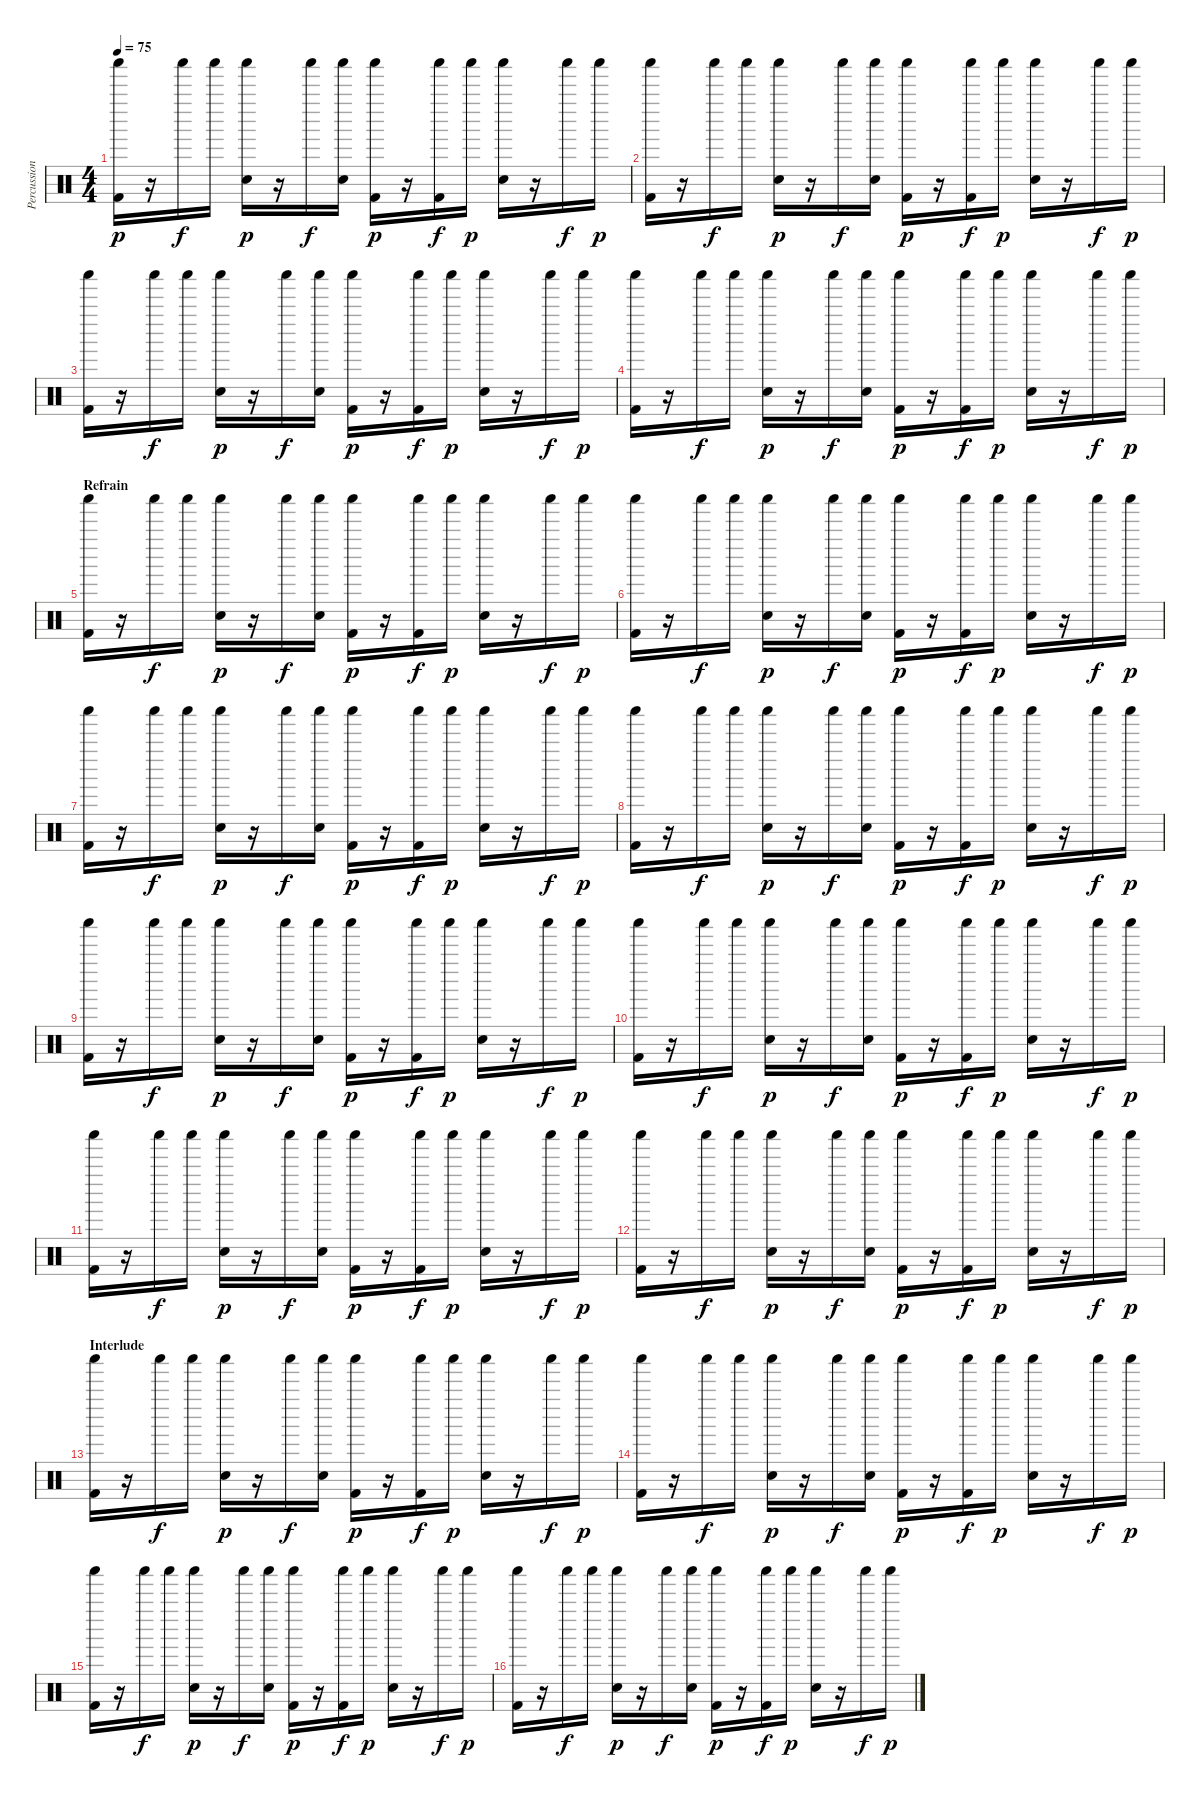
\track ("Percussions - Dom Howard" "Percussion") {instrument percussion}
\staff {score}
\articulation defaults
\ts (4 4)
\tempo 75
\clef neutral
\ks c
("Kick (hit) 2" "Shaker (hit)").16{dy p} r.16 "Shaker (hit)".16{dy f} "Shaker (hit)".16 ("Electric Snare (hit)" "Shaker (hit)").16{dy p} r.16 "Shaker (hit)".16{dy f} ("Electric Snare (hit)" "Shaker (hit)").16 ("Kick (hit) 2" "Shaker (hit)").16{dy p} r.16 ("Kick (hit) 2" "Shaker (hit)").16{dy f} "Shaker (hit)".16{dy p} ("Electric Snare (hit)" "Shaker (hit)").16 r.16 "Shaker (hit)".16{dy f} "Shaker (hit)".16{dy p} |
("Kick (hit) 2" "Shaker (hit)").16 r.16 "Shaker (hit)".16{dy f} "Shaker (hit)".16 ("Electric Snare (hit)" "Shaker (hit)").16{dy p} r.16 "Shaker (hit)".16{dy f} ("Electric Snare (hit)" "Shaker (hit)").16 ("Kick (hit) 2" "Shaker (hit)").16{dy p} r.16 ("Kick (hit) 2" "Shaker (hit)").16{dy f} "Shaker (hit)".16{dy p} ("Electric Snare (hit)" "Shaker (hit)").16 r.16 "Shaker (hit)".16{dy f} "Shaker (hit)".16{dy p} |
("Kick (hit) 2" "Shaker (hit)").16 r.16 "Shaker (hit)".16{dy f} "Shaker (hit)".16 ("Electric Snare (hit)" "Shaker (hit)").16{dy p} r.16 "Shaker (hit)".16{dy f} ("Electric Snare (hit)" "Shaker (hit)").16 ("Kick (hit) 2" "Shaker (hit)").16{dy p} r.16 ("Kick (hit) 2" "Shaker (hit)").16{dy f} "Shaker (hit)".16{dy p} ("Electric Snare (hit)" "Shaker (hit)").16 r.16 "Shaker (hit)".16{dy f} "Shaker (hit)".16{dy p} |
("Kick (hit) 2" "Shaker (hit)").16 r.16 "Shaker (hit)".16{dy f} "Shaker (hit)".16 ("Electric Snare (hit)" "Shaker (hit)").16{dy p} r.16 "Shaker (hit)".16{dy f} ("Electric Snare (hit)" "Shaker (hit)").16 ("Kick (hit) 2" "Shaker (hit)").16{dy p} r.16 ("Kick (hit) 2" "Shaker (hit)").16{dy f} "Shaker (hit)".16{dy p} ("Electric Snare (hit)" "Shaker (hit)").16 r.16 "Shaker (hit)".16{dy f} "Shaker (hit)".16{dy p} |
\section ("" "Refrain")
("Kick (hit) 2" "Shaker (hit)").16 r.16 "Shaker (hit)".16{dy f} "Shaker (hit)".16 ("Electric Snare (hit)" "Shaker (hit)").16{dy p} r.16 "Shaker (hit)".16{dy f} ("Electric Snare (hit)" "Shaker (hit)").16 ("Kick (hit) 2" "Shaker (hit)").16{dy p} r.16 ("Kick (hit) 2" "Shaker (hit)").16{dy f} "Shaker (hit)".16{dy p} ("Electric Snare (hit)" "Shaker (hit)").16 r.16 "Shaker (hit)".16{dy f} "Shaker (hit)".16{dy p} |
("Kick (hit) 2" "Shaker (hit)").16 r.16 "Shaker (hit)".16{dy f} "Shaker (hit)".16 ("Electric Snare (hit)" "Shaker (hit)").16{dy p} r.16 "Shaker (hit)".16{dy f} ("Electric Snare (hit)" "Shaker (hit)").16 ("Kick (hit) 2" "Shaker (hit)").16{dy p} r.16 ("Kick (hit) 2" "Shaker (hit)").16{dy f} "Shaker (hit)".16{dy p} ("Electric Snare (hit)" "Shaker (hit)").16 r.16 "Shaker (hit)".16{dy f} "Shaker (hit)".16{dy p} |
("Kick (hit) 2" "Shaker (hit)").16 r.16 "Shaker (hit)".16{dy f} "Shaker (hit)".16 ("Electric Snare (hit)" "Shaker (hit)").16{dy p} r.16 "Shaker (hit)".16{dy f} ("Electric Snare (hit)" "Shaker (hit)").16 ("Kick (hit) 2" "Shaker (hit)").16{dy p} r.16 ("Kick (hit) 2" "Shaker (hit)").16{dy f} "Shaker (hit)".16{dy p} ("Electric Snare (hit)" "Shaker (hit)").16 r.16 "Shaker (hit)".16{dy f} "Shaker (hit)".16{dy p} |
("Kick (hit) 2" "Shaker (hit)").16 r.16 "Shaker (hit)".16{dy f} "Shaker (hit)".16 ("Electric Snare (hit)" "Shaker (hit)").16{dy p} r.16 "Shaker (hit)".16{dy f} ("Electric Snare (hit)" "Shaker (hit)").16 ("Kick (hit) 2" "Shaker (hit)").16{dy p} r.16 ("Kick (hit) 2" "Shaker (hit)").16{dy f} "Shaker (hit)".16{dy p} ("Electric Snare (hit)" "Shaker (hit)").16 r.16 "Shaker (hit)".16{dy f} "Shaker (hit)".16{dy p} |
("Kick (hit) 2" "Shaker (hit)").16 r.16 "Shaker (hit)".16{dy f} "Shaker (hit)".16 ("Electric Snare (hit)" "Shaker (hit)").16{dy p} r.16 "Shaker (hit)".16{dy f} ("Electric Snare (hit)" "Shaker (hit)").16 ("Kick (hit) 2" "Shaker (hit)").16{dy p} r.16 ("Kick (hit) 2" "Shaker (hit)").16{dy f} "Shaker (hit)".16{dy p} ("Electric Snare (hit)" "Shaker (hit)").16 r.16 "Shaker (hit)".16{dy f} "Shaker (hit)".16{dy p} |
("Kick (hit) 2" "Shaker (hit)").16 r.16 "Shaker (hit)".16{dy f} "Shaker (hit)".16 ("Electric Snare (hit)" "Shaker (hit)").16{dy p} r.16 "Shaker (hit)".16{dy f} ("Electric Snare (hit)" "Shaker (hit)").16 ("Kick (hit) 2" "Shaker (hit)").16{dy p} r.16 ("Kick (hit) 2" "Shaker (hit)").16{dy f} "Shaker (hit)".16{dy p} ("Electric Snare (hit)" "Shaker (hit)").16 r.16 "Shaker (hit)".16{dy f} "Shaker (hit)".16{dy p} |
("Kick (hit) 2" "Shaker (hit)").16 r.16 "Shaker (hit)".16{dy f} "Shaker (hit)".16 ("Electric Snare (hit)" "Shaker (hit)").16{dy p} r.16 "Shaker (hit)".16{dy f} ("Electric Snare (hit)" "Shaker (hit)").16 ("Kick (hit) 2" "Shaker (hit)").16{dy p} r.16 ("Kick (hit) 2" "Shaker (hit)").16{dy f} "Shaker (hit)".16{dy p} ("Electric Snare (hit)" "Shaker (hit)").16 r.16 "Shaker (hit)".16{dy f} "Shaker (hit)".16{dy p} |
("Kick (hit) 2" "Shaker (hit)").16 r.16 "Shaker (hit)".16{dy f} "Shaker (hit)".16 ("Electric Snare (hit)" "Shaker (hit)").16{dy p} r.16 "Shaker (hit)".16{dy f} ("Electric Snare (hit)" "Shaker (hit)").16 ("Kick (hit) 2" "Shaker (hit)").16{dy p} r.16 ("Kick (hit) 2" "Shaker (hit)").16{dy f} "Shaker (hit)".16{dy p} ("Electric Snare (hit)" "Shaker (hit)").16 r.16 "Shaker (hit)".16{dy f} "Shaker (hit)".16{dy p} |
\section ("" "Interlude")
("Kick (hit) 2" "Shaker (hit)").16 r.16 "Shaker (hit)".16{dy f} "Shaker (hit)".16 ("Electric Snare (hit)" "Shaker (hit)").16{dy p} r.16 "Shaker (hit)".16{dy f} ("Electric Snare (hit)" "Shaker (hit)").16 ("Kick (hit) 2" "Shaker (hit)").16{dy p} r.16 ("Kick (hit) 2" "Shaker (hit)").16{dy f} "Shaker (hit)".16{dy p} ("Electric Snare (hit)" "Shaker (hit)").16 r.16 "Shaker (hit)".16{dy f} "Shaker (hit)".16{dy p} |
("Kick (hit) 2" "Shaker (hit)").16 r.16 "Shaker (hit)".16{dy f} "Shaker (hit)".16 ("Electric Snare (hit)" "Shaker (hit)").16{dy p} r.16 "Shaker (hit)".16{dy f} ("Electric Snare (hit)" "Shaker (hit)").16 ("Kick (hit) 2" "Shaker (hit)").16{dy p} r.16 ("Kick (hit) 2" "Shaker (hit)").16{dy f} "Shaker (hit)".16{dy p} ("Electric Snare (hit)" "Shaker (hit)").16 r.16 "Shaker (hit)".16{dy f} "Shaker (hit)".16{dy p} |
("Kick (hit) 2" "Shaker (hit)").16 r.16 "Shaker (hit)".16{dy f} "Shaker (hit)".16 ("Electric Snare (hit)" "Shaker (hit)").16{dy p} r.16 "Shaker (hit)".16{dy f} ("Electric Snare (hit)" "Shaker (hit)").16 ("Kick (hit) 2" "Shaker (hit)").16{dy p} r.16 ("Kick (hit) 2" "Shaker (hit)").16{dy f} "Shaker (hit)".16{dy p} ("Electric Snare (hit)" "Shaker (hit)").16 r.16 "Shaker (hit)".16{dy f} "Shaker (hit)".16{dy p} |
("Kick (hit) 2" "Shaker (hit)").16 r.16 "Shaker (hit)".16{dy f} "Shaker (hit)".16 ("Electric Snare (hit)" "Shaker (hit)").16{dy p} r.16 "Shaker (hit)".16{dy f} ("Electric Snare (hit)" "Shaker (hit)").16 ("Kick (hit) 2" "Shaker (hit)").16{dy p} r.16 ("Kick (hit) 2" "Shaker (hit)").16{dy f} "Shaker (hit)".16{dy p} ("Electric Snare (hit)" "Shaker (hit)").16 r.16 "Shaker (hit)".16{dy f} "Shaker (hit)".16{dy p}
